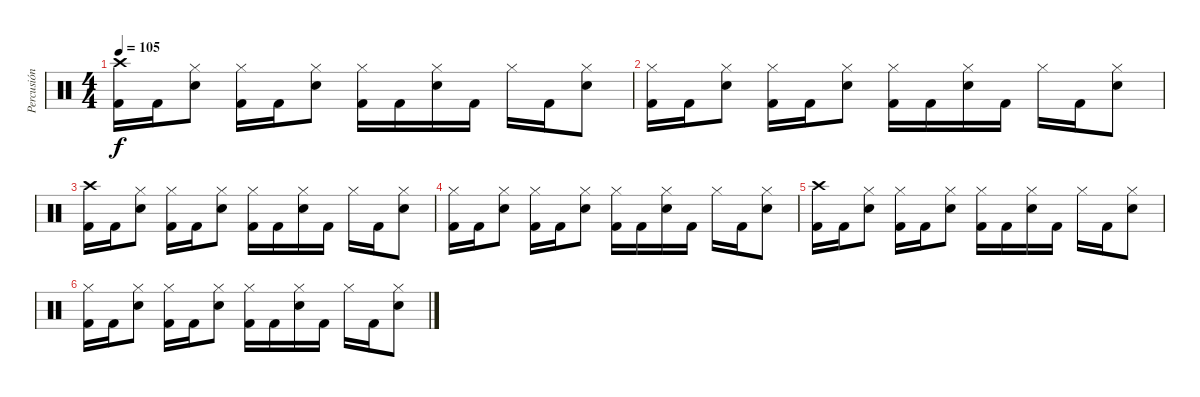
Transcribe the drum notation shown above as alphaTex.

\track ("Percusión" "Percusión") {instrument percussion}
\staff {score}
\articulation defaults
\ts (4 4)
\tempo 105
\clef neutral
\ks c
("Crash high (hit)" "Kick (hit) 2").16{dy f} "Kick (hit) 2".16 ("Hi-Hat (closed)" "Electric Snare (hit)").8 ("Hi-Hat (closed)" "Kick (hit) 2").16 "Kick (hit) 2".16 ("Hi-Hat (closed)" "Electric Snare (hit)").8 ("Hi-Hat (closed)" "Kick (hit) 2").16 "Kick (hit) 2".16 ("Hi-Hat (closed)" "Electric Snare (hit)").16 "Kick (hit) 2".16 "Hi-Hat (closed)".16 "Kick (hit) 2".16 ("Hi-Hat (closed)" "Electric Snare (hit)").8 |
("Hi-Hat (closed)" "Kick (hit) 2").16 "Kick (hit) 2".16 ("Hi-Hat (closed)" "Electric Snare (hit)").8 ("Hi-Hat (closed)" "Kick (hit) 2").16 "Kick (hit) 2".16 ("Hi-Hat (closed)" "Electric Snare (hit)").8 ("Hi-Hat (closed)" "Kick (hit) 2").16 "Kick (hit) 2".16 ("Hi-Hat (closed)" "Electric Snare (hit)").16 "Kick (hit) 2".16 "Hi-Hat (closed)".16 "Kick (hit) 2".16 ("Hi-Hat (closed)" "Electric Snare (hit)").8 |
("Crash high (hit)" "Kick (hit) 2").16 "Kick (hit) 2".16 ("Hi-Hat (closed)" "Electric Snare (hit)").8 ("Hi-Hat (closed)" "Kick (hit) 2").16 "Kick (hit) 2".16 ("Hi-Hat (closed)" "Electric Snare (hit)").8 ("Hi-Hat (closed)" "Kick (hit) 2").16 "Kick (hit) 2".16 ("Hi-Hat (closed)" "Electric Snare (hit)").16 "Kick (hit) 2".16 "Hi-Hat (closed)".16 "Kick (hit) 2".16 ("Hi-Hat (closed)" "Electric Snare (hit)").8 |
("Hi-Hat (closed)" "Kick (hit) 2").16 "Kick (hit) 2".16 ("Hi-Hat (closed)" "Electric Snare (hit)").8 ("Hi-Hat (closed)" "Kick (hit) 2").16 "Kick (hit) 2".16 ("Hi-Hat (closed)" "Electric Snare (hit)").8 ("Hi-Hat (closed)" "Kick (hit) 2").16 "Kick (hit) 2".16 ("Hi-Hat (closed)" "Electric Snare (hit)").16 "Kick (hit) 2".16 "Hi-Hat (closed)".16 "Kick (hit) 2".16 ("Hi-Hat (closed)" "Electric Snare (hit)").8 |
("Crash high (hit)" "Kick (hit) 2").16 "Kick (hit) 2".16 ("Hi-Hat (closed)" "Electric Snare (hit)").8 ("Hi-Hat (closed)" "Kick (hit) 2").16 "Kick (hit) 2".16 ("Hi-Hat (closed)" "Electric Snare (hit)").8 ("Hi-Hat (closed)" "Kick (hit) 2").16 "Kick (hit) 2".16 ("Hi-Hat (closed)" "Electric Snare (hit)").16 "Kick (hit) 2".16 "Hi-Hat (closed)".16 "Kick (hit) 2".16 ("Hi-Hat (closed)" "Electric Snare (hit)").8 |
("Hi-Hat (closed)" "Kick (hit) 2").16 "Kick (hit) 2".16 ("Hi-Hat (closed)" "Electric Snare (hit)").8 ("Hi-Hat (closed)" "Kick (hit) 2").16 "Kick (hit) 2".16 ("Hi-Hat (closed)" "Electric Snare (hit)").8 ("Hi-Hat (closed)" "Kick (hit) 2").16 "Kick (hit) 2".16 ("Hi-Hat (closed)" "Electric Snare (hit)").16 "Kick (hit) 2".16 "Hi-Hat (closed)".16 "Kick (hit) 2".16 ("Hi-Hat (closed)" "Electric Snare (hit)").8
